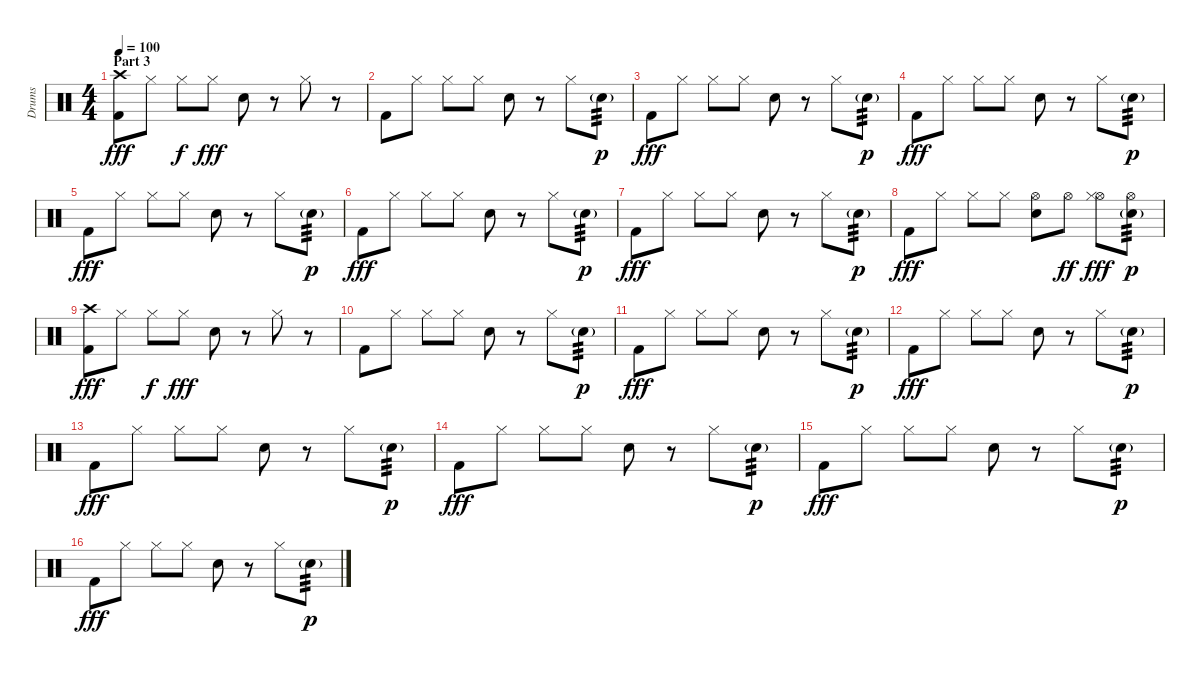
\track ("Drums" "Drums") {instrument percussion}
\staff {score}
\articulation defaults
\ts (4 4)
\section ("" "Part 3")
\tempo 100
\clef neutral
\ks c
("Crash high (hit)" "Kick (hit) 2").8{dy fff} "Hi-Hat (closed)".8 "Hi-Hat (closed)".8{dy f} "Hi-Hat (closed)".8{dy fff} "Electric Snare (hit)".8 r.8 "Hi-Hat (closed)".8 r.8 |
"Kick (hit) 2".8 "Hi-Hat (closed)".8 "Hi-Hat (closed)".8 "Hi-Hat (closed)".8 "Electric Snare (hit)".8 r.8 "Hi-Hat (closed)".8 "Electric Snare (hit)"{g}.8{tp 3 dy p} |
"Kick (hit) 2".8{dy fff} "Hi-Hat (closed)".8 "Hi-Hat (closed)".8 "Hi-Hat (closed)".8 "Electric Snare (hit)".8 r.8 "Hi-Hat (closed)".8 "Electric Snare (hit)"{g}.8{tp 3 dy p} |
"Kick (hit) 2".8{dy fff} "Hi-Hat (closed)".8 "Hi-Hat (closed)".8 "Hi-Hat (closed)".8 "Electric Snare (hit)".8 r.8 "Hi-Hat (closed)".8 "Electric Snare (hit)"{g}.8{tp 3 dy p} |
"Kick (hit) 2".8{dy fff} "Hi-Hat (closed)".8 "Hi-Hat (closed)".8 "Hi-Hat (closed)".8 "Electric Snare (hit)".8 r.8 "Hi-Hat (closed)".8 "Electric Snare (hit)"{g}.8{tp 3 dy p} |
"Kick (hit) 2".8{dy fff} "Hi-Hat (closed)".8 "Hi-Hat (closed)".8 "Hi-Hat (closed)".8 "Electric Snare (hit)".8 r.8 "Hi-Hat (closed)".8 "Electric Snare (hit)"{g}.8{tp 3 dy p} |
"Kick (hit) 2".8{dy fff} "Hi-Hat (closed)".8 "Hi-Hat (closed)".8 "Hi-Hat (closed)".8 "Electric Snare (hit)".8 r.8 "Hi-Hat (closed)".8 "Electric Snare (hit)"{g}.8{tp 3 dy p} |
"Kick (hit) 2".8{dy fff} "Hi-Hat (closed)".8 "Hi-Hat (closed)".8 "Hi-Hat (closed)".8 ("Hi-Hat (open)" "Electric Snare (hit)").8 "Hi-Hat (open)".8{dy ff} ("Hi-Hat (open)" "Hi-Hat (closed)").8{dy fff} ("Hi-Hat (open)" "Electric Snare (hit)"{g}).8{tp 3 dy p} |
("Crash high (hit)" "Kick (hit) 2").8{dy fff} "Hi-Hat (closed)".8 "Hi-Hat (closed)".8{dy f} "Hi-Hat (closed)".8{dy fff} "Electric Snare (hit)".8 r.8 "Hi-Hat (closed)".8 r.8 |
"Kick (hit) 2".8 "Hi-Hat (closed)".8 "Hi-Hat (closed)".8 "Hi-Hat (closed)".8 "Electric Snare (hit)".8 r.8 "Hi-Hat (closed)".8 "Electric Snare (hit)"{g}.8{tp 3 dy p} |
"Kick (hit) 2".8{dy fff} "Hi-Hat (closed)".8 "Hi-Hat (closed)".8 "Hi-Hat (closed)".8 "Electric Snare (hit)".8 r.8 "Hi-Hat (closed)".8 "Electric Snare (hit)"{g}.8{tp 3 dy p} |
"Kick (hit) 2".8{dy fff} "Hi-Hat (closed)".8 "Hi-Hat (closed)".8 "Hi-Hat (closed)".8 "Electric Snare (hit)".8 r.8 "Hi-Hat (closed)".8 "Electric Snare (hit)"{g}.8{tp 3 dy p} |
"Kick (hit) 2".8{dy fff} "Hi-Hat (closed)".8 "Hi-Hat (closed)".8 "Hi-Hat (closed)".8 "Electric Snare (hit)".8 r.8 "Hi-Hat (closed)".8 "Electric Snare (hit)"{g}.8{tp 3 dy p} |
"Kick (hit) 2".8{dy fff} "Hi-Hat (closed)".8 "Hi-Hat (closed)".8 "Hi-Hat (closed)".8 "Electric Snare (hit)".8 r.8 "Hi-Hat (closed)".8 "Electric Snare (hit)"{g}.8{tp 3 dy p} |
"Kick (hit) 2".8{dy fff} "Hi-Hat (closed)".8 "Hi-Hat (closed)".8 "Hi-Hat (closed)".8 "Electric Snare (hit)".8 r.8 "Hi-Hat (closed)".8 "Electric Snare (hit)"{g}.8{tp 3 dy p} |
"Kick (hit) 2".8{dy fff} "Hi-Hat (closed)".8 "Hi-Hat (closed)".8 "Hi-Hat (closed)".8 "Electric Snare (hit)".8 r.8 "Hi-Hat (closed)".8 "Electric Snare (hit)"{g}.8{tp 3 dy p}
